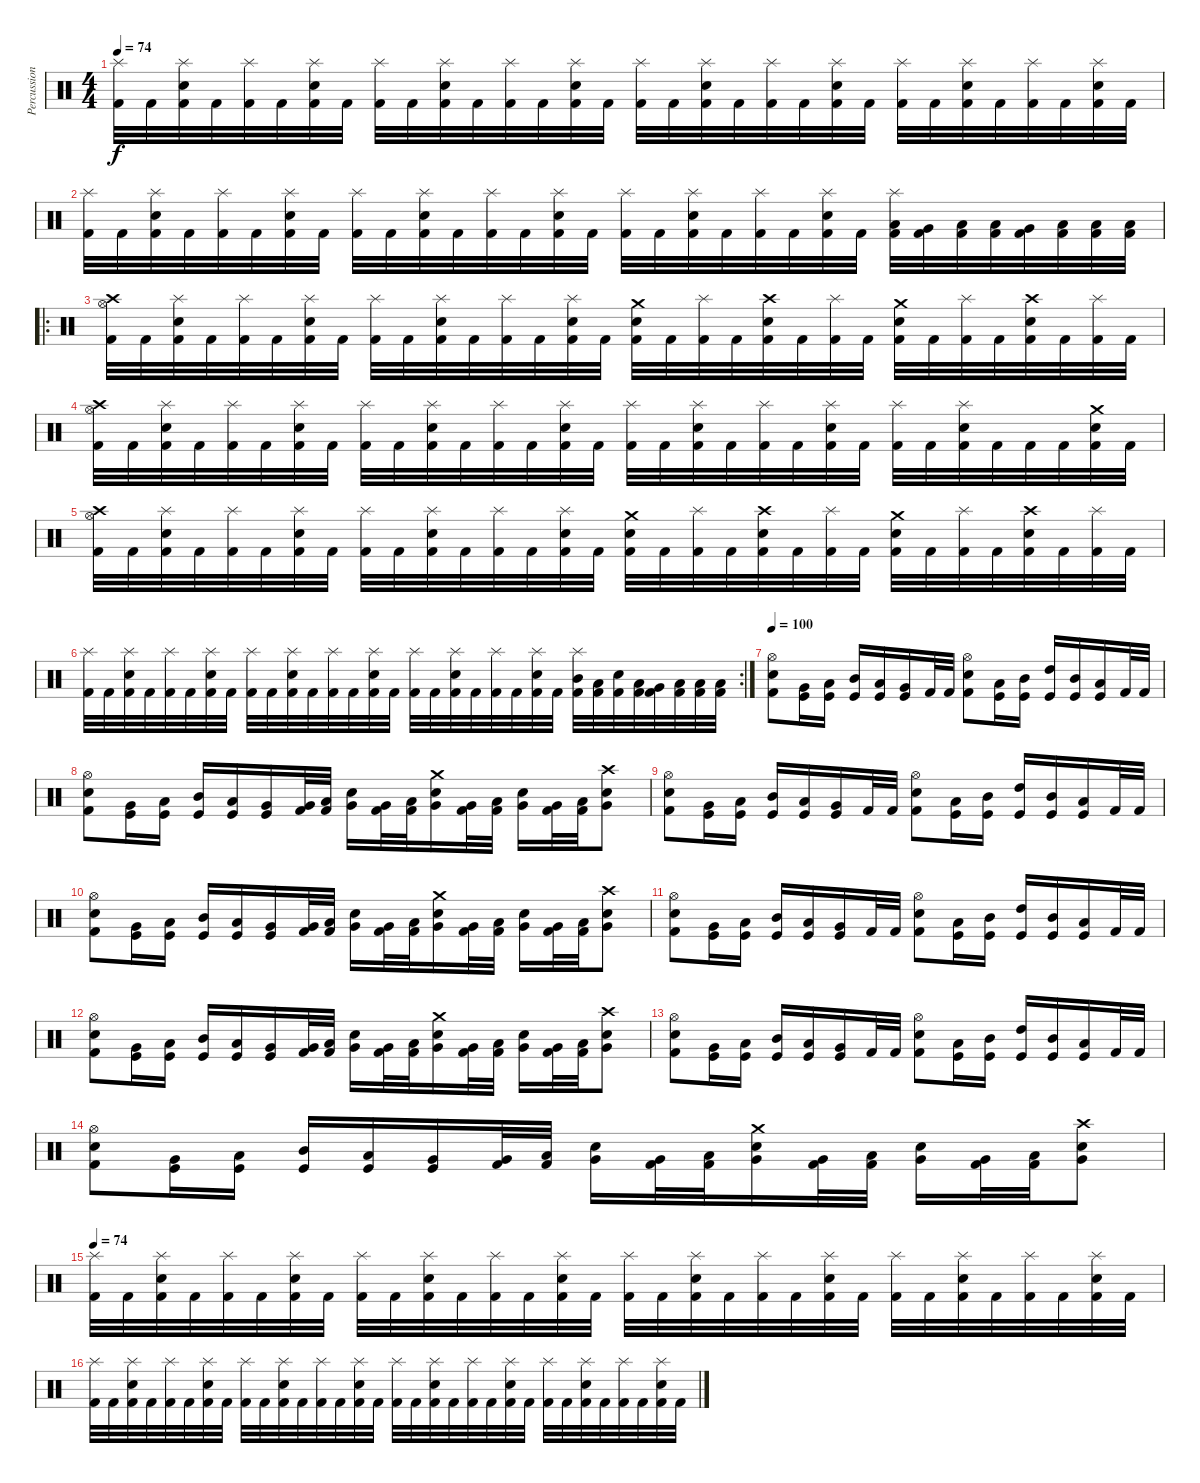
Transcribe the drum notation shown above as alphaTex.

\track ("Percussion" "Percussion") {instrument percussion}
\staff {score}
\articulation defaults
\ts (4 4)
\tempo 74
\clef neutral
\ks c
("Splash (hit)" "Kick (hit) 2").32{dy f} "Kick (hit) 2".32 ("Splash (hit)" "Snare (hit) 2" "Kick (hit) 2").32 "Kick (hit) 2".32 ("Splash (hit)" "Kick (hit) 2").32 "Kick (hit) 2".32 ("Splash (hit)" "Snare (hit) 2" "Kick (hit) 2").32 "Kick (hit) 2".32 ("Splash (hit)" "Kick (hit) 2").32 "Kick (hit) 2".32 ("Splash (hit)" "Snare (hit) 2" "Kick (hit) 2").32 "Kick (hit) 2".32 ("Splash (hit)" "Kick (hit) 2").32 "Kick (hit) 2".32 ("Splash (hit)" "Snare (hit) 2" "Kick (hit) 2").32 "Kick (hit) 2".32 ("Splash (hit)" "Kick (hit) 2").32 "Kick (hit) 2".32 ("Splash (hit)" "Snare (hit) 2" "Kick (hit) 2").32 "Kick (hit) 2".32 ("Splash (hit)" "Kick (hit) 2").32 "Kick (hit) 2".32 ("Splash (hit)" "Snare (hit) 2" "Kick (hit) 2").32 "Kick (hit) 2".32 ("Splash (hit)" "Kick (hit) 2").32 "Kick (hit) 2".32 ("Splash (hit)" "Snare (hit) 2" "Kick (hit) 2").32 "Kick (hit) 2".32 ("Splash (hit)" "Kick (hit) 2").32 "Kick (hit) 2".32 ("Splash (hit)" "Snare (hit) 2" "Kick (hit) 2").32 "Kick (hit) 2".32 |
("Splash (hit)" "Kick (hit) 2").32 "Kick (hit) 2".32 ("Splash (hit)" "Snare (hit) 2" "Kick (hit) 2").32 "Kick (hit) 2".32 ("Splash (hit)" "Kick (hit) 2").32 "Kick (hit) 2".32 ("Splash (hit)" "Snare (hit) 2" "Kick (hit) 2").32 "Kick (hit) 2".32 ("Splash (hit)" "Kick (hit) 2").32 "Kick (hit) 2".32 ("Splash (hit)" "Snare (hit) 2" "Kick (hit) 2").32 "Kick (hit) 2".32 ("Splash (hit)" "Kick (hit) 2").32 "Kick (hit) 2".32 ("Splash (hit)" "Snare (hit) 2" "Kick (hit) 2").32 "Kick (hit) 2".32 ("Splash (hit)" "Kick (hit) 2").32 "Kick (hit) 2".32 ("Splash (hit)" "Snare (hit) 2" "Kick (hit) 2").32 "Kick (hit) 2".32 ("Splash (hit)" "Kick (hit) 2").32 "Kick (hit) 2".32 ("Splash (hit)" "Snare (hit) 2" "Kick (hit) 2").32 "Kick (hit) 2".32 ("Splash (hit)" "Low Tom (hit)" "Kick (hit) 2").32 ("Very Low Tom (hit)" "Kick (hit) 2").32 ("Low Tom (hit)" "Kick (hit) 2").32 ("Low Floor Tom (hit)" "Kick (hit) 2").32 ("Very Low Tom (hit)" "Kick (hit) 2").32 ("Low Floor Tom (hit)" "Kick (hit) 2").32 ("Low Floor Tom (hit)" "Kick (hit) 2").32 ("Low Floor Tom (hit)" "Kick (hit) 2").32 |
\ro
("Crash high (hit)" "Hi-Hat (open)" "Kick (hit) 2").32 "Kick (hit) 2".32 ("Splash (hit)" "Snare (hit) 2" "Kick (hit) 2").32 "Kick (hit) 2".32 ("Splash (hit)" "Kick (hit) 2").32 "Kick (hit) 2".32 ("Splash (hit)" "Snare (hit) 2" "Kick (hit) 2").32 "Kick (hit) 2".32 ("Splash (hit)" "Kick (hit) 2").32 "Kick (hit) 2".32 ("Splash (hit)" "Snare (hit) 2" "Kick (hit) 2").32 "Kick (hit) 2".32 ("Splash (hit)" "Kick (hit) 2").32 "Kick (hit) 2".32 ("Splash (hit)" "Snare (hit) 2" "Kick (hit) 2").32 "Kick (hit) 2".32 ("Crash medium (hit)" "Snare (hit) 2" "Kick (hit) 2").32 "Kick (hit) 2".32 ("Splash (hit)" "Kick (hit) 2").32 "Kick (hit) 2".32 ("Crash high (hit)" "Snare (hit) 2" "Kick (hit) 2").32 "Kick (hit) 2".32 ("Splash (hit)" "Kick (hit) 2").32 "Kick (hit) 2".32 ("Crash medium (hit)" "Snare (hit) 2" "Kick (hit) 2").32 "Kick (hit) 2".32 ("Splash (hit)" "Kick (hit) 2").32 "Kick (hit) 2".32 ("Crash high (hit)" "Snare (hit) 2" "Kick (hit) 2").32 "Kick (hit) 2".32 ("Splash (hit)" "Kick (hit) 2").32 "Kick (hit) 2".32 |
("Crash high (hit)" "Hi-Hat (open)" "Kick (hit) 2").32 "Kick (hit) 2".32 ("Splash (hit)" "Snare (hit) 2" "Kick (hit) 2").32 "Kick (hit) 2".32 ("Splash (hit)" "Kick (hit) 2").32 "Kick (hit) 2".32 ("Splash (hit)" "Snare (hit) 2" "Kick (hit) 2").32 "Kick (hit) 2".32 ("Splash (hit)" "Kick (hit) 2").32 "Kick (hit) 2".32 ("Splash (hit)" "Snare (hit) 2" "Kick (hit) 2").32 "Kick (hit) 2".32 ("Splash (hit)" "Kick (hit) 2").32 "Kick (hit) 2".32 ("Splash (hit)" "Snare (hit) 2" "Kick (hit) 2").32 "Kick (hit) 2".32 ("Splash (hit)" "Kick (hit) 2").32 "Kick (hit) 2".32 ("Splash (hit)" "Snare (hit) 2" "Kick (hit) 2").32 "Kick (hit) 2".32 ("Splash (hit)" "Kick (hit) 2").32 "Kick (hit) 2".32 ("Splash (hit)" "Snare (hit) 2" "Kick (hit) 2").32 "Kick (hit) 2".32 ("Splash (hit)" "Kick (hit) 2").32 "Kick (hit) 2".32 ("Splash (hit)" "Snare (hit) 2" "Kick (hit) 2").32 "Kick (hit) 2".32 "Kick (hit) 2".32 "Kick (hit) 2".32 ("Crash medium (hit)" "Snare (hit) 2" "Kick (hit) 2").32 "Kick (hit) 2".32 |
("Crash high (hit)" "Hi-Hat (open)" "Kick (hit) 2").32 "Kick (hit) 2".32 ("Splash (hit)" "Snare (hit) 2" "Kick (hit) 2").32 "Kick (hit) 2".32 ("Splash (hit)" "Kick (hit) 2").32 "Kick (hit) 2".32 ("Splash (hit)" "Snare (hit) 2" "Kick (hit) 2").32 "Kick (hit) 2".32 ("Splash (hit)" "Kick (hit) 2").32 "Kick (hit) 2".32 ("Splash (hit)" "Snare (hit) 2" "Kick (hit) 2").32 "Kick (hit) 2".32 ("Splash (hit)" "Kick (hit) 2").32 "Kick (hit) 2".32 ("Splash (hit)" "Snare (hit) 2" "Kick (hit) 2").32 "Kick (hit) 2".32 ("Crash medium (hit)" "Snare (hit) 2" "Kick (hit) 2").32 "Kick (hit) 2".32 ("Splash (hit)" "Kick (hit) 2").32 "Kick (hit) 2".32 ("Crash high (hit)" "Snare (hit) 2" "Kick (hit) 2").32 "Kick (hit) 2".32 ("Splash (hit)" "Kick (hit) 2").32 "Kick (hit) 2".32 ("Crash medium (hit)" "Snare (hit) 2" "Kick (hit) 2").32 "Kick (hit) 2".32 ("Splash (hit)" "Kick (hit) 2").32 "Kick (hit) 2".32 ("Crash high (hit)" "Snare (hit) 2" "Kick (hit) 2").32 "Kick (hit) 2".32 ("Splash (hit)" "Kick (hit) 2").32 "Kick (hit) 2".32 |
\rc 2
("Splash (hit)" "Kick (hit) 2").32 "Kick (hit) 2".32 ("Splash (hit)" "Snare (hit) 2" "Kick (hit) 2").32 "Kick (hit) 2".32 ("Splash (hit)" "Kick (hit) 2").32 "Kick (hit) 2".32 ("Splash (hit)" "Snare (hit) 2" "Kick (hit) 2").32 "Kick (hit) 2".32 ("Splash (hit)" "Kick (hit) 2").32 "Kick (hit) 2".32 ("Splash (hit)" "Snare (hit) 2" "Kick (hit) 2").32 "Kick (hit) 2".32 ("Splash (hit)" "Kick (hit) 2").32 "Kick (hit) 2".32 ("Splash (hit)" "Snare (hit) 2" "Kick (hit) 2").32 "Kick (hit) 2".32 ("Splash (hit)" "Kick (hit) 2").32 "Kick (hit) 2".32 ("Splash (hit)" "Snare (hit) 2" "Kick (hit) 2").32 "Kick (hit) 2".32 ("Splash (hit)" "Kick (hit) 2").32 "Kick (hit) 2".32 ("Splash (hit)" "Snare (hit) 2" "Kick (hit) 2").32 "Kick (hit) 2".32 ("Splash (hit)" "Mid Tom (hit)" "Kick (hit) 2").32 ("Low Tom (hit)" "Kick (hit) 2").32 ("Snare (hit) 2" "Kick (hit) 2").32 ("Low Floor Tom (hit)" "Kick (hit) 2").32 ("Very Low Tom (hit)" "Kick (hit) 2").32 ("Low Floor Tom (hit)" "Kick (hit) 2").32 ("Low Floor Tom (hit)" "Kick (hit) 2").32 ("Low Floor Tom (hit)" "Kick (hit) 2").32 |
\tempo 100
("Hi-Hat (open)" "Snare (hit) 2" "Kick (hit) 2").8 ("Very Low Tom (hit)" "Kick (hit)").16 ("Low Tom (hit)" "Kick (hit)").16 ("Mid Tom (hit)" "Kick (hit)").16 ("Low Tom (hit)" "Kick (hit)").16 ("Very Low Tom (hit)" "Kick (hit)").16 "Kick (hit) 2".32 "Kick (hit) 2".32 ("Hi-Hat (open)" "Snare (hit) 2" "Kick (hit) 2").8 ("Low Tom (hit)" "Kick (hit)").16 ("Mid Tom (hit)" "Kick (hit)").16 ("High Tom (hit)" "Kick (hit)").16 ("Mid Tom (hit)" "Kick (hit)").16 ("Low Tom (hit)" "Kick (hit)").16 "Kick (hit) 2".32 "Kick (hit) 2".32 |
("Hi-Hat (open)" "Snare (hit) 2" "Kick (hit) 2").8 ("Very Low Tom (hit)" "Kick (hit)").16 ("Low Tom (hit)" "Kick (hit)").16 ("Mid Tom (hit)" "Kick (hit)").16 ("Low Tom (hit)" "Kick (hit)").16 ("Very Low Tom (hit)" "Kick (hit)").16 ("Very Low Tom (hit)" "Kick (hit) 2").32 ("Low Tom (hit)" "Kick (hit) 2").32 ("Snare (hit) 2" "Very Low Tom (hit)").16 ("Very Low Tom (hit)" "Kick (hit) 2").32 ("Low Tom (hit)" "Kick (hit) 2").32 ("Crash medium (hit)" "Snare (hit) 2" "Very Low Tom (hit)").16 ("Very Low Tom (hit)" "Kick (hit) 2").32 ("Low Tom (hit)" "Kick (hit) 2").32 ("Snare (hit) 2" "Very Low Tom (hit)").16 ("Very Low Tom (hit)" "Kick (hit) 2").32 ("Low Tom (hit)" "Kick (hit) 2").32 ("Crash high (hit)" "Snare (hit) 2" "Very Low Tom (hit)").8 |
("Hi-Hat (open)" "Snare (hit) 2" "Kick (hit) 2").8 ("Very Low Tom (hit)" "Kick (hit)").16 ("Low Tom (hit)" "Kick (hit)").16 ("Mid Tom (hit)" "Kick (hit)").16 ("Low Tom (hit)" "Kick (hit)").16 ("Very Low Tom (hit)" "Kick (hit)").16 "Kick (hit) 2".32 "Kick (hit) 2".32 ("Hi-Hat (open)" "Snare (hit) 2" "Kick (hit) 2").8 ("Low Tom (hit)" "Kick (hit)").16 ("Mid Tom (hit)" "Kick (hit)").16 ("High Tom (hit)" "Kick (hit)").16 ("Mid Tom (hit)" "Kick (hit)").16 ("Low Tom (hit)" "Kick (hit)").16 "Kick (hit) 2".32 "Kick (hit) 2".32 |
("Hi-Hat (open)" "Snare (hit) 2" "Kick (hit) 2").8 ("Very Low Tom (hit)" "Kick (hit)").16 ("Low Tom (hit)" "Kick (hit)").16 ("Mid Tom (hit)" "Kick (hit)").16 ("Low Tom (hit)" "Kick (hit)").16 ("Very Low Tom (hit)" "Kick (hit)").16 ("Very Low Tom (hit)" "Kick (hit) 2").32 ("Low Tom (hit)" "Kick (hit) 2").32 ("Snare (hit) 2" "Very Low Tom (hit)").16 ("Very Low Tom (hit)" "Kick (hit) 2").32 ("Low Tom (hit)" "Kick (hit) 2").32 ("Crash medium (hit)" "Snare (hit) 2" "Very Low Tom (hit)").16 ("Very Low Tom (hit)" "Kick (hit) 2").32 ("Low Tom (hit)" "Kick (hit) 2").32 ("Snare (hit) 2" "Very Low Tom (hit)").16 ("Very Low Tom (hit)" "Kick (hit) 2").32 ("Low Tom (hit)" "Kick (hit) 2").32 ("Crash high (hit)" "Snare (hit) 2" "Very Low Tom (hit)").8 |
("Hi-Hat (open)" "Snare (hit) 2" "Kick (hit) 2").8 ("Very Low Tom (hit)" "Kick (hit)").16 ("Low Tom (hit)" "Kick (hit)").16 ("Mid Tom (hit)" "Kick (hit)").16 ("Low Tom (hit)" "Kick (hit)").16 ("Very Low Tom (hit)" "Kick (hit)").16 "Kick (hit) 2".32 "Kick (hit) 2".32 ("Hi-Hat (open)" "Snare (hit) 2" "Kick (hit) 2").8 ("Low Tom (hit)" "Kick (hit)").16 ("Mid Tom (hit)" "Kick (hit)").16 ("High Tom (hit)" "Kick (hit)").16 ("Mid Tom (hit)" "Kick (hit)").16 ("Low Tom (hit)" "Kick (hit)").16 "Kick (hit) 2".32 "Kick (hit) 2".32 |
("Hi-Hat (open)" "Snare (hit) 2" "Kick (hit) 2").8 ("Very Low Tom (hit)" "Kick (hit)").16 ("Low Tom (hit)" "Kick (hit)").16 ("Mid Tom (hit)" "Kick (hit)").16 ("Low Tom (hit)" "Kick (hit)").16 ("Very Low Tom (hit)" "Kick (hit)").16 ("Very Low Tom (hit)" "Kick (hit) 2").32 ("Low Tom (hit)" "Kick (hit) 2").32 ("Snare (hit) 2" "Very Low Tom (hit)").16 ("Very Low Tom (hit)" "Kick (hit) 2").32 ("Low Tom (hit)" "Kick (hit) 2").32 ("Crash medium (hit)" "Snare (hit) 2" "Very Low Tom (hit)").16 ("Very Low Tom (hit)" "Kick (hit) 2").32 ("Low Tom (hit)" "Kick (hit) 2").32 ("Snare (hit) 2" "Very Low Tom (hit)").16 ("Very Low Tom (hit)" "Kick (hit) 2").32 ("Low Tom (hit)" "Kick (hit) 2").32 ("Crash high (hit)" "Snare (hit) 2" "Very Low Tom (hit)").8 |
("Hi-Hat (open)" "Snare (hit) 2" "Kick (hit) 2").8 ("Very Low Tom (hit)" "Kick (hit)").16 ("Low Tom (hit)" "Kick (hit)").16 ("Mid Tom (hit)" "Kick (hit)").16 ("Low Tom (hit)" "Kick (hit)").16 ("Very Low Tom (hit)" "Kick (hit)").16 "Kick (hit) 2".32 "Kick (hit) 2".32 ("Hi-Hat (open)" "Snare (hit) 2" "Kick (hit) 2").8 ("Low Tom (hit)" "Kick (hit)").16 ("Mid Tom (hit)" "Kick (hit)").16 ("High Tom (hit)" "Kick (hit)").16 ("Mid Tom (hit)" "Kick (hit)").16 ("Low Tom (hit)" "Kick (hit)").16 "Kick (hit) 2".32 "Kick (hit) 2".32 |
("Hi-Hat (open)" "Snare (hit) 2" "Kick (hit) 2").8 ("Very Low Tom (hit)" "Kick (hit)").16 ("Low Tom (hit)" "Kick (hit)").16 ("Mid Tom (hit)" "Kick (hit)").16 ("Low Tom (hit)" "Kick (hit)").16 ("Very Low Tom (hit)" "Kick (hit)").16 ("Very Low Tom (hit)" "Kick (hit) 2").32 ("Low Tom (hit)" "Kick (hit) 2").32 ("Snare (hit) 2" "Very Low Tom (hit)").16 ("Very Low Tom (hit)" "Kick (hit) 2").32 ("Low Tom (hit)" "Kick (hit) 2").32 ("Crash medium (hit)" "Snare (hit) 2" "Very Low Tom (hit)").16 ("Very Low Tom (hit)" "Kick (hit) 2").32 ("Low Tom (hit)" "Kick (hit) 2").32 ("Snare (hit) 2" "Very Low Tom (hit)").16 ("Very Low Tom (hit)" "Kick (hit) 2").32 ("Low Tom (hit)" "Kick (hit) 2").32 ("Crash high (hit)" "Snare (hit) 2" "Very Low Tom (hit)").8 |
\tempo 74
("Splash (hit)" "Kick (hit) 2").32 "Kick (hit) 2".32 ("Splash (hit)" "Snare (hit) 2" "Kick (hit) 2").32 "Kick (hit) 2".32 ("Splash (hit)" "Kick (hit) 2").32 "Kick (hit) 2".32 ("Splash (hit)" "Snare (hit) 2" "Kick (hit) 2").32 "Kick (hit) 2".32 ("Splash (hit)" "Kick (hit) 2").32 "Kick (hit) 2".32 ("Splash (hit)" "Snare (hit) 2" "Kick (hit) 2").32 "Kick (hit) 2".32 ("Splash (hit)" "Kick (hit) 2").32 "Kick (hit) 2".32 ("Splash (hit)" "Snare (hit) 2" "Kick (hit) 2").32 "Kick (hit) 2".32 ("Splash (hit)" "Kick (hit) 2").32 "Kick (hit) 2".32 ("Splash (hit)" "Snare (hit) 2" "Kick (hit) 2").32 "Kick (hit) 2".32 ("Splash (hit)" "Kick (hit) 2").32 "Kick (hit) 2".32 ("Splash (hit)" "Snare (hit) 2" "Kick (hit) 2").32 "Kick (hit) 2".32 ("Splash (hit)" "Kick (hit) 2").32 "Kick (hit) 2".32 ("Splash (hit)" "Snare (hit) 2" "Kick (hit) 2").32 "Kick (hit) 2".32 ("Splash (hit)" "Kick (hit) 2").32 "Kick (hit) 2".32 ("Splash (hit)" "Snare (hit) 2" "Kick (hit) 2").32 "Kick (hit) 2".32 |
("Splash (hit)" "Kick (hit) 2").32 "Kick (hit) 2".32 ("Splash (hit)" "Snare (hit) 2" "Kick (hit) 2").32 "Kick (hit) 2".32 ("Splash (hit)" "Kick (hit) 2").32 "Kick (hit) 2".32 ("Splash (hit)" "Snare (hit) 2" "Kick (hit) 2").32 "Kick (hit) 2".32 ("Splash (hit)" "Kick (hit) 2").32 "Kick (hit) 2".32 ("Splash (hit)" "Snare (hit) 2" "Kick (hit) 2").32 "Kick (hit) 2".32 ("Splash (hit)" "Kick (hit) 2").32 "Kick (hit) 2".32 ("Splash (hit)" "Snare (hit) 2" "Kick (hit) 2").32 "Kick (hit) 2".32 ("Splash (hit)" "Kick (hit) 2").32 "Kick (hit) 2".32 ("Splash (hit)" "Snare (hit) 2" "Kick (hit) 2").32 "Kick (hit) 2".32 ("Splash (hit)" "Kick (hit) 2").32 "Kick (hit) 2".32 ("Splash (hit)" "Snare (hit) 2" "Kick (hit) 2").32 "Kick (hit) 2".32 ("Splash (hit)" "Kick (hit) 2").32 "Kick (hit) 2".32 ("Splash (hit)" "Snare (hit) 2" "Kick (hit) 2").32 "Kick (hit) 2".32 ("Splash (hit)" "Kick (hit) 2").32 "Kick (hit) 2".32 ("Splash (hit)" "Snare (hit) 2" "Kick (hit) 2").32 "Kick (hit) 2".32
